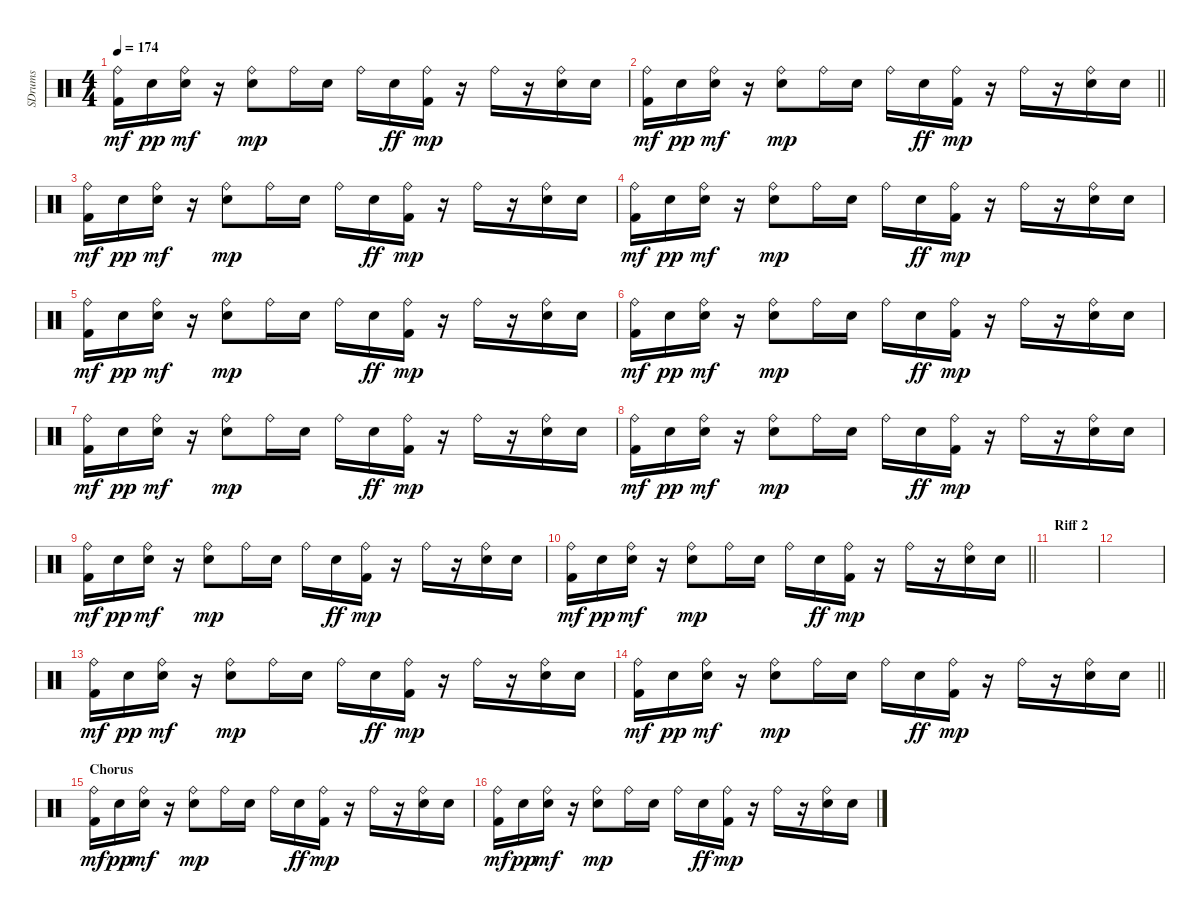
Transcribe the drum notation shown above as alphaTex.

\track ("SDrums" "SDrums") {instrument percussion}
\staff {score}
\articulation defaults
\ts (4 4)
\tempo 174
\clef neutral
\ks c
("Kick (hit) 2" "Ride (bell)").16{dy mf} "Snare (hit) 2".16{dy pp} ("Snare (hit) 2" "Ride (bell)").16{dy mf} r.16 ("Snare (hit) 2" "Ride (bell)").8{dy mp} "Ride (bell)".16 "Snare (hit) 2".16 "Ride (bell)".16 "Snare (hit) 2".16{dy ff} ("Kick (hit) 2" "Ride (bell)").16{dy mp} r.16 "Ride (bell)".16 r.16 ("Snare (hit) 2" "Ride (bell)").16 "Snare (hit) 2".16 |
\barLineRight lightlight
("Kick (hit) 2" "Ride (bell)").16{dy mf} "Snare (hit) 2".16{dy pp} ("Snare (hit) 2" "Ride (bell)").16{dy mf} r.16 ("Snare (hit) 2" "Ride (bell)").8{dy mp} "Ride (bell)".16 "Snare (hit) 2".16 "Ride (bell)".16 "Snare (hit) 2".16{dy ff} ("Kick (hit) 2" "Ride (bell)").16{dy mp} r.16 "Ride (bell)".16 r.16 ("Snare (hit) 2" "Ride (bell)").16 "Snare (hit) 2".16 |
("Kick (hit) 2" "Ride (bell)").16{dy mf} "Snare (hit) 2".16{dy pp} ("Snare (hit) 2" "Ride (bell)").16{dy mf} r.16 ("Snare (hit) 2" "Ride (bell)").8{dy mp} "Ride (bell)".16 "Snare (hit) 2".16 "Ride (bell)".16 "Snare (hit) 2".16{dy ff} ("Kick (hit) 2" "Ride (bell)").16{dy mp} r.16 "Ride (bell)".16 r.16 ("Snare (hit) 2" "Ride (bell)").16 "Snare (hit) 2".16 |
("Kick (hit) 2" "Ride (bell)").16{dy mf} "Snare (hit) 2".16{dy pp} ("Snare (hit) 2" "Ride (bell)").16{dy mf} r.16 ("Snare (hit) 2" "Ride (bell)").8{dy mp} "Ride (bell)".16 "Snare (hit) 2".16 "Ride (bell)".16 "Snare (hit) 2".16{dy ff} ("Kick (hit) 2" "Ride (bell)").16{dy mp} r.16 "Ride (bell)".16 r.16 ("Snare (hit) 2" "Ride (bell)").16 "Snare (hit) 2".16 |
("Kick (hit) 2" "Ride (bell)").16{dy mf} "Snare (hit) 2".16{dy pp} ("Snare (hit) 2" "Ride (bell)").16{dy mf} r.16 ("Snare (hit) 2" "Ride (bell)").8{dy mp} "Ride (bell)".16 "Snare (hit) 2".16 "Ride (bell)".16 "Snare (hit) 2".16{dy ff} ("Kick (hit) 2" "Ride (bell)").16{dy mp} r.16 "Ride (bell)".16 r.16 ("Snare (hit) 2" "Ride (bell)").16 "Snare (hit) 2".16 |
("Kick (hit) 2" "Ride (bell)").16{dy mf} "Snare (hit) 2".16{dy pp} ("Snare (hit) 2" "Ride (bell)").16{dy mf} r.16 ("Snare (hit) 2" "Ride (bell)").8{dy mp} "Ride (bell)".16 "Snare (hit) 2".16 "Ride (bell)".16 "Snare (hit) 2".16{dy ff} ("Kick (hit) 2" "Ride (bell)").16{dy mp} r.16 "Ride (bell)".16 r.16 ("Snare (hit) 2" "Ride (bell)").16 "Snare (hit) 2".16 |
("Kick (hit) 2" "Ride (bell)").16{dy mf} "Snare (hit) 2".16{dy pp} ("Snare (hit) 2" "Ride (bell)").16{dy mf} r.16 ("Snare (hit) 2" "Ride (bell)").8{dy mp} "Ride (bell)".16 "Snare (hit) 2".16 "Ride (bell)".16 "Snare (hit) 2".16{dy ff} ("Kick (hit) 2" "Ride (bell)").16{dy mp} r.16 "Ride (bell)".16 r.16 ("Snare (hit) 2" "Ride (bell)").16 "Snare (hit) 2".16 |
("Kick (hit) 2" "Ride (bell)").16{dy mf} "Snare (hit) 2".16{dy pp} ("Snare (hit) 2" "Ride (bell)").16{dy mf} r.16 ("Snare (hit) 2" "Ride (bell)").8{dy mp} "Ride (bell)".16 "Snare (hit) 2".16 "Ride (bell)".16 "Snare (hit) 2".16{dy ff} ("Kick (hit) 2" "Ride (bell)").16{dy mp} r.16 "Ride (bell)".16 r.16 ("Snare (hit) 2" "Ride (bell)").16 "Snare (hit) 2".16 |
("Kick (hit) 2" "Ride (bell)").16{dy mf} "Snare (hit) 2".16{dy pp} ("Snare (hit) 2" "Ride (bell)").16{dy mf} r.16 ("Snare (hit) 2" "Ride (bell)").8{dy mp} "Ride (bell)".16 "Snare (hit) 2".16 "Ride (bell)".16 "Snare (hit) 2".16{dy ff} ("Kick (hit) 2" "Ride (bell)").16{dy mp} r.16 "Ride (bell)".16 r.16 ("Snare (hit) 2" "Ride (bell)").16 "Snare (hit) 2".16 |
\barLineRight lightlight
("Kick (hit) 2" "Ride (bell)").16{dy mf} "Snare (hit) 2".16{dy pp} ("Snare (hit) 2" "Ride (bell)").16{dy mf} r.16 ("Snare (hit) 2" "Ride (bell)").8{dy mp} "Ride (bell)".16 "Snare (hit) 2".16 "Ride (bell)".16 "Snare (hit) 2".16{dy ff} ("Kick (hit) 2" "Ride (bell)").16{dy mp} r.16 "Ride (bell)".16 r.16 ("Snare (hit) 2" "Ride (bell)").16 "Snare (hit) 2".16 |
\section ("" "Riff 2")
|
|
("Kick (hit) 2" "Ride (bell)").16{dy mf} "Snare (hit) 2".16{dy pp} ("Snare (hit) 2" "Ride (bell)").16{dy mf} r.16 ("Snare (hit) 2" "Ride (bell)").8{dy mp} "Ride (bell)".16 "Snare (hit) 2".16 "Ride (bell)".16 "Snare (hit) 2".16{dy ff} ("Kick (hit) 2" "Ride (bell)").16{dy mp} r.16 "Ride (bell)".16 r.16 ("Snare (hit) 2" "Ride (bell)").16 "Snare (hit) 2".16 |
\barLineRight lightlight
("Kick (hit) 2" "Ride (bell)").16{dy mf} "Snare (hit) 2".16{dy pp} ("Snare (hit) 2" "Ride (bell)").16{dy mf} r.16 ("Snare (hit) 2" "Ride (bell)").8{dy mp} "Ride (bell)".16 "Snare (hit) 2".16 "Ride (bell)".16 "Snare (hit) 2".16{dy ff} ("Kick (hit) 2" "Ride (bell)").16{dy mp} r.16 "Ride (bell)".16 r.16 ("Snare (hit) 2" "Ride (bell)").16 "Snare (hit) 2".16 |
\section ("" "Chorus")
("Kick (hit) 2" "Ride (bell)").16{dy mf} "Snare (hit) 2".16{dy pp} ("Snare (hit) 2" "Ride (bell)").16{dy mf} r.16 ("Snare (hit) 2" "Ride (bell)").8{dy mp} "Ride (bell)".16 "Snare (hit) 2".16 "Ride (bell)".16 "Snare (hit) 2".16{dy ff} ("Kick (hit) 2" "Ride (bell)").16{dy mp} r.16 "Ride (bell)".16 r.16 ("Snare (hit) 2" "Ride (bell)").16 "Snare (hit) 2".16 |
("Kick (hit) 2" "Ride (bell)").16{dy mf} "Snare (hit) 2".16{dy pp} ("Snare (hit) 2" "Ride (bell)").16{dy mf} r.16 ("Snare (hit) 2" "Ride (bell)").8{dy mp} "Ride (bell)".16 "Snare (hit) 2".16 "Ride (bell)".16 "Snare (hit) 2".16{dy ff} ("Kick (hit) 2" "Ride (bell)").16{dy mp} r.16 "Ride (bell)".16 r.16 ("Snare (hit) 2" "Ride (bell)").16 "Snare (hit) 2".16
